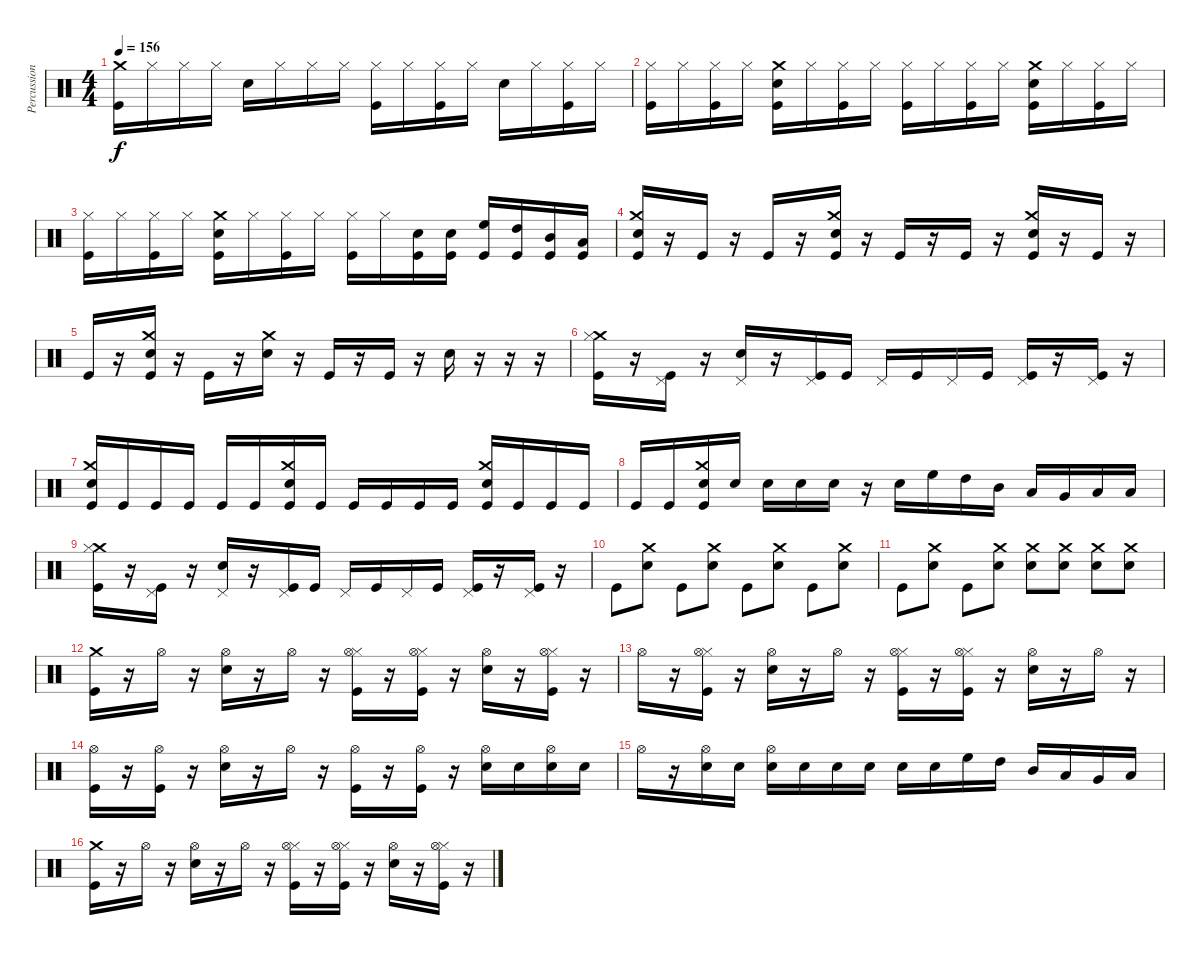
\track ("Percussion" "Percussion") {instrument percussion}
\staff {score}
\articulation defaults
\ts (4 4)
\tempo 156
\clef neutral
\ks c
("Kick (hit)" "Crash medium (hit)").16{dy f} "Hi-Hat (closed)".16 "Hi-Hat (closed)".16 "Hi-Hat (closed)".16 "Snare (hit) 2".16 "Hi-Hat (closed)".16 "Hi-Hat (closed)".16 "Hi-Hat (closed)".16 ("Kick (hit)" "Hi-Hat (closed)").16 "Hi-Hat (closed)".16 ("Kick (hit)" "Hi-Hat (closed)").16 "Hi-Hat (closed)".16 "Snare (hit) 2".16 "Hi-Hat (closed)".16 ("Kick (hit)" "Hi-Hat (closed)").16 "Hi-Hat (closed)".16 |
("Kick (hit)" "Hi-Hat (closed)").16 "Hi-Hat (closed)".16 ("Kick (hit)" "Hi-Hat (closed)").16 "Hi-Hat (closed)".16 ("Kick (hit)" "Snare (hit) 2" "Crash medium (hit)").16 "Hi-Hat (closed)".16 ("Kick (hit)" "Hi-Hat (closed)").16 "Hi-Hat (closed)".16 ("Kick (hit)" "Hi-Hat (closed)").16 "Hi-Hat (closed)".16 ("Kick (hit)" "Hi-Hat (closed)").16 "Hi-Hat (closed)".16 ("Kick (hit)" "Snare (hit) 2" "Crash medium (hit)").16 "Hi-Hat (closed)".16 ("Kick (hit)" "Hi-Hat (closed)").16 "Hi-Hat (closed)".16 |
("Kick (hit)" "Hi-Hat (closed)").16 "Hi-Hat (closed)".16 ("Kick (hit)" "Hi-Hat (closed)").16 "Hi-Hat (closed)".16 ("Kick (hit)" "Snare (hit) 2" "Crash medium (hit)").16 "Hi-Hat (closed)".16 ("Kick (hit)" "Hi-Hat (closed)").16 "Hi-Hat (closed)".16 ("Kick (hit)" "Hi-Hat (closed)").16 "Hi-Hat (closed)".16 ("Snare (hit) 2" "Kick (hit)").16 ("Snare (hit) 2" "Kick (hit)").16 ("High Floor Tom (hit)" "Kick (hit)").16 ("High Tom (hit)" "Kick (hit)").16 ("Mid Tom (hit)" "Kick (hit)").16 ("Low Tom (hit)" "Kick (hit)").16 |
("Crash medium (hit)" "Kick (hit)" "Snare (hit) 2").16 r.16 "Kick (hit)".16 r.16 "Kick (hit)".16 r.16 ("Crash medium (hit)" "Kick (hit)" "Snare (hit) 2").16 r.16 "Kick (hit)".16 r.16 "Kick (hit)".16 r.16 ("Crash medium (hit)" "Kick (hit)" "Snare (hit) 2").16 r.16 "Kick (hit)".16 r.16 |
"Kick (hit)".16 r.16 ("Crash medium (hit)" "Kick (hit)" "Snare (hit) 2").16 r.16 "Kick (hit)".16 r.16 ("Crash medium (hit)" "Snare (hit) 2").16 r.16 "Kick (hit)".16 r.16 "Kick (hit)".16 r.16 "Snare (hit) 2".16 r.16 r.16 r.16 |
("Crash medium (hit)" "Hi-Hat (closed)" "Kick (hit)").16 r.16 ("Pedal Hi-Hat (hit)" "Kick (hit)").16 r.16 ("Pedal Hi-Hat (hit)" "Snare (hit) 2").16 r.16 ("Pedal Hi-Hat (hit)" "Kick (hit)").16 "Kick (hit)".16 "Pedal Hi-Hat (hit)".16 "Kick (hit)".16 "Pedal Hi-Hat (hit)".16 "Kick (hit)".16 ("Pedal Hi-Hat (hit)" "Kick (hit)").16 r.16 ("Pedal Hi-Hat (hit)" "Kick (hit)").16 r.16 |
("Crash medium (hit)" "Kick (hit)" "Snare (hit) 2").16 "Kick (hit)".16 "Kick (hit)".16 "Kick (hit)".16 "Kick (hit)".16 "Kick (hit)".16 ("Crash medium (hit)" "Kick (hit)" "Snare (hit) 2").16 "Kick (hit)".16 "Kick (hit)".16 "Kick (hit)".16 "Kick (hit)".16 "Kick (hit)".16 ("Crash medium (hit)" "Kick (hit)" "Snare (hit) 2").16 "Kick (hit)".16 "Kick (hit)".16 "Kick (hit)".16 |
"Kick (hit)".16 "Kick (hit)".16 ("Crash medium (hit)" "Kick (hit)" "Snare (hit) 2").16 "Snare (hit) 2".16 "Snare (hit) 2".16 "Snare (hit) 2".16 "Snare (hit) 2".16 r.16 "Snare (hit) 2".16 "High Floor Tom (hit)".16 "High Tom (hit)".16 "Mid Tom (hit)".16 "Low Tom (hit)".16 "Very Low Tom (hit)".16 "Low Floor Tom (hit)".16 "Low Floor Tom (hit)".16 |
("Crash medium (hit)" "Hi-Hat (closed)" "Kick (hit)").16 r.16 ("Pedal Hi-Hat (hit)" "Kick (hit)").16 r.16 ("Pedal Hi-Hat (hit)" "Snare (hit) 2").16 r.16 ("Pedal Hi-Hat (hit)" "Kick (hit)").16 "Kick (hit)".16 "Pedal Hi-Hat (hit)".16 "Kick (hit)".16 "Pedal Hi-Hat (hit)".16 "Kick (hit)".16 ("Pedal Hi-Hat (hit)" "Kick (hit)").16 r.16 ("Pedal Hi-Hat (hit)" "Kick (hit)").16 r.16 |
"Kick (hit)".8 ("Crash medium (hit)" "Snare (hit) 2").8 "Kick (hit)".8 ("Crash medium (hit)" "Snare (hit) 2").8 "Kick (hit)".8 ("Crash medium (hit)" "Snare (hit) 2").8 "Kick (hit)".8 ("Crash medium (hit)" "Snare (hit) 2").8 |
"Kick (hit)".8 ("Crash medium (hit)" "Snare (hit) 2").8 "Kick (hit)".8 ("Crash medium (hit)" "Snare (hit) 2").8 ("Crash medium (hit)" "Snare (hit) 2").8 ("Crash medium (hit)" "Snare (hit) 2").8 ("Crash medium (hit)" "Snare (hit) 2").8 ("Crash medium (hit)" "Snare (hit) 2").8 |
("Kick (hit)" "Crash medium (hit)").16 r.16 "Hi-Hat (open)".16 r.16 ("Hi-Hat (open)" "Snare (hit) 2").16 r.16 "Hi-Hat (open)".16 r.16 ("Kick (hit)" "Hi-Hat (closed)" "Hi-Hat (open)").16 r.16 ("Kick (hit)" "Hi-Hat (closed)" "Hi-Hat (open)").16 r.16 ("Hi-Hat (open)" "Snare (hit) 2").16 r.16 ("Kick (hit)" "Hi-Hat (closed)" "Hi-Hat (open)").16 r.16 |
"Hi-Hat (open)".16 r.16 ("Kick (hit)" "Hi-Hat (closed)" "Hi-Hat (open)").16 r.16 ("Hi-Hat (open)" "Snare (hit) 2").16 r.16 "Hi-Hat (open)".16 r.16 ("Kick (hit)" "Hi-Hat (closed)" "Hi-Hat (open)").16 r.16 ("Kick (hit)" "Hi-Hat (closed)" "Hi-Hat (open)").16 r.16 ("Hi-Hat (open)" "Snare (hit) 2").16 r.16 "Hi-Hat (open)".16 r.16 |
("Kick (hit)" "Hi-Hat (open)").16 r.16 ("Kick (hit)" "Hi-Hat (open)").16 r.16 ("Snare (hit) 2" "Hi-Hat (open)").16 r.16 "Hi-Hat (open)".16 r.16 ("Kick (hit)" "Hi-Hat (open)").16 r.16 ("Kick (hit)" "Hi-Hat (open)").16 r.16 ("Snare (hit) 2" "Hi-Hat (open)").16 "Snare (hit) 2".16 ("Snare (hit) 2" "Hi-Hat (open)").16 "Snare (hit) 2".16 |
"Hi-Hat (open)".16 r.16 ("Snare (hit) 2" "Hi-Hat (open)").16 "Snare (hit) 2".16 ("Snare (hit) 2" "Hi-Hat (open)").16 "Snare (hit) 2".16 "Snare (hit) 2".16 "Snare (hit) 2".16 "Snare (hit) 2".16 "Snare (hit) 2".16 "High Floor Tom (hit)".16 "High Tom (hit)".16 "Mid Tom (hit)".16 "Low Tom (hit)".16 "Very Low Tom (hit)".16 "Low Floor Tom (hit)".16 |
("Kick (hit)" "Crash medium (hit)").16 r.16 "Hi-Hat (open)".16 r.16 ("Hi-Hat (open)" "Snare (hit) 2").16 r.16 "Hi-Hat (open)".16 r.16 ("Kick (hit)" "Hi-Hat (closed)" "Hi-Hat (open)").16 r.16 ("Kick (hit)" "Hi-Hat (closed)" "Hi-Hat (open)").16 r.16 ("Hi-Hat (open)" "Snare (hit) 2").16 r.16 ("Kick (hit)" "Hi-Hat (closed)" "Hi-Hat (open)").16 r.16
